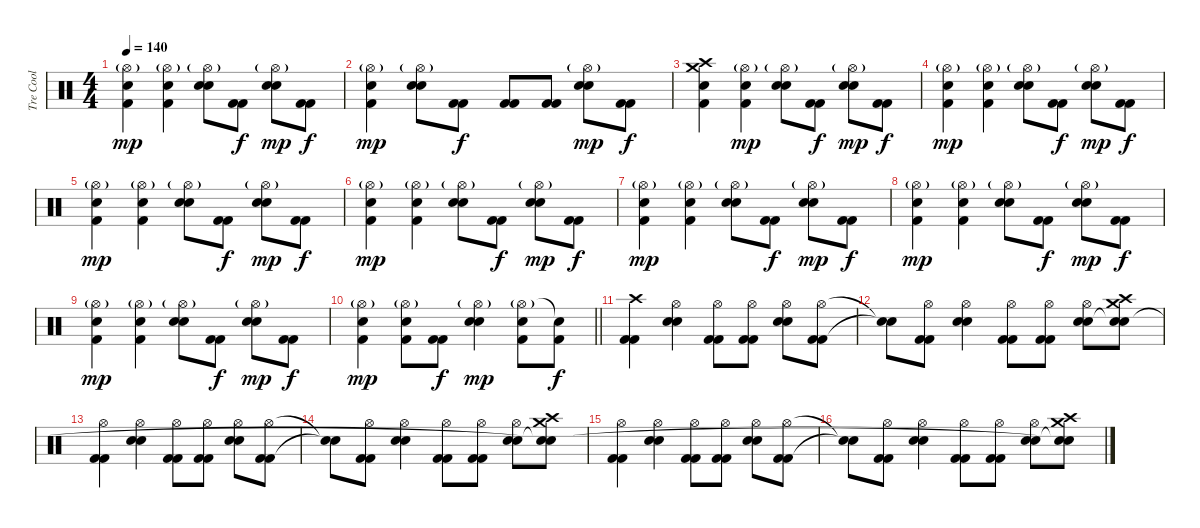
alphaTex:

\track ("Tre Cool" "Tre Cool") {instrument percussion}
\staff {score}
\articulation defaults
\ts (4 4)
\tempo 140
\clef neutral
\ks c
("Hi-Hat (open)"{g} "Electric Snare (hit)" "Kick (hit) 2").4{dy mp} ("Hi-Hat (open)"{g} "Electric Snare (hit)" "Kick (hit) 2").4 ("Hi-Hat (open)"{g} "Electric Snare (hit)" "Electric Snare (hit)").8 ("Kick (hit) 2" "Kick (hit) 2").8{dy f} ("Hi-Hat (open)"{g} "Electric Snare (hit)" "Electric Snare (hit)").8{dy mp} ("Kick (hit) 2" "Kick (hit) 2").8{dy f} |
("Hi-Hat (open)"{g} "Electric Snare (hit)" "Kick (hit) 2").4{dy mp} ("Hi-Hat (open)"{g} "Electric Snare (hit)" "Electric Snare (hit)").8 ("Kick (hit) 2" "Kick (hit) 2").8{dy f} ("Kick (hit) 2" "Kick (hit) 2").8 ("Kick (hit) 2" "Kick (hit) 2").8 ("Hi-Hat (open)"{g} "Electric Snare (hit)" "Electric Snare (hit)").8{dy mp} ("Kick (hit) 2" "Kick (hit) 2").8{dy f} |
("Crash high (hit)" "Crash medium (hit)" "Electric Snare (hit)" "Kick (hit) 2").4 ("Hi-Hat (open)"{g} "Electric Snare (hit)" "Kick (hit) 2").4{dy mp} ("Hi-Hat (open)"{g} "Electric Snare (hit)" "Electric Snare (hit)").8 ("Kick (hit) 2" "Kick (hit) 2").8{dy f} ("Hi-Hat (open)"{g} "Electric Snare (hit)" "Electric Snare (hit)").8{dy mp} ("Kick (hit) 2" "Kick (hit) 2").8{dy f} |
("Hi-Hat (open)"{g} "Electric Snare (hit)" "Kick (hit) 2").4{dy mp} ("Hi-Hat (open)"{g} "Electric Snare (hit)" "Kick (hit) 2").4 ("Hi-Hat (open)"{g} "Electric Snare (hit)" "Electric Snare (hit)").8 ("Kick (hit) 2" "Kick (hit) 2").8{dy f} ("Hi-Hat (open)"{g} "Electric Snare (hit)" "Electric Snare (hit)").8{dy mp} ("Kick (hit) 2" "Kick (hit) 2").8{dy f} |
("Hi-Hat (open)"{g} "Electric Snare (hit)" "Kick (hit) 2").4{dy mp} ("Hi-Hat (open)"{g} "Electric Snare (hit)" "Kick (hit) 2").4 ("Hi-Hat (open)"{g} "Electric Snare (hit)" "Electric Snare (hit)").8 ("Kick (hit) 2" "Kick (hit) 2").8{dy f} ("Hi-Hat (open)"{g} "Electric Snare (hit)" "Electric Snare (hit)").8{dy mp} ("Kick (hit) 2" "Kick (hit) 2").8{dy f} |
("Hi-Hat (open)"{g} "Electric Snare (hit)" "Kick (hit) 2").4{dy mp} ("Hi-Hat (open)"{g} "Electric Snare (hit)" "Kick (hit) 2").4 ("Hi-Hat (open)"{g} "Electric Snare (hit)" "Electric Snare (hit)").8 ("Kick (hit) 2" "Kick (hit) 2").8{dy f} ("Hi-Hat (open)"{g} "Electric Snare (hit)" "Electric Snare (hit)").8{dy mp} ("Kick (hit) 2" "Kick (hit) 2").8{dy f} |
("Hi-Hat (open)"{g} "Electric Snare (hit)" "Kick (hit) 2").4{dy mp} ("Hi-Hat (open)"{g} "Electric Snare (hit)" "Kick (hit) 2").4 ("Hi-Hat (open)"{g} "Electric Snare (hit)" "Electric Snare (hit)").8 ("Kick (hit) 2" "Kick (hit) 2").8{dy f} ("Hi-Hat (open)"{g} "Electric Snare (hit)" "Electric Snare (hit)").8{dy mp} ("Kick (hit) 2" "Kick (hit) 2").8{dy f} |
("Hi-Hat (open)"{g} "Electric Snare (hit)" "Kick (hit) 2").4{dy mp} ("Hi-Hat (open)"{g} "Electric Snare (hit)" "Kick (hit) 2").4 ("Hi-Hat (open)"{g} "Electric Snare (hit)" "Electric Snare (hit)").8 ("Kick (hit) 2" "Kick (hit) 2").8{dy f} ("Hi-Hat (open)"{g} "Electric Snare (hit)" "Electric Snare (hit)").8{dy mp} ("Kick (hit) 2" "Kick (hit) 2").8{dy f} |
("Hi-Hat (open)"{g} "Electric Snare (hit)" "Kick (hit) 2").4{dy mp} ("Hi-Hat (open)"{g} "Electric Snare (hit)" "Kick (hit) 2").4 ("Hi-Hat (open)"{g} "Electric Snare (hit)" "Electric Snare (hit)").8 ("Kick (hit) 2" "Kick (hit) 2").8{dy f} ("Hi-Hat (open)"{g} "Electric Snare (hit)" "Electric Snare (hit)").8{dy mp} ("Kick (hit) 2" "Kick (hit) 2").8{dy f} |
\barLineRight lightlight
("Hi-Hat (open)"{g} "Electric Snare (hit)" "Kick (hit) 2").4{dy mp} ("Hi-Hat (open)"{g} "Electric Snare (hit)" "Kick (hit) 2").8 ("Kick (hit) 2" "Kick (hit) 2").8{dy f} ("Hi-Hat (open)"{g} "Electric Snare (hit)" "Electric Snare (hit)").4{dy mp} ("Hi-Hat (open)"{g} "Electric Snare (hit)"{tr (38 64)} "Kick (hit) 2").8 ("Electric Snare (hit)"{t} "Kick (hit) 2").8{dy f} |
("Crash high (hit)" "Kick (hit) 2" "Kick (hit) 2").4 ("Hi-Hat (open)" "Electric Snare (hit)" "Electric Snare (hit)").4 ("Hi-Hat (open)" "Kick (hit) 2" "Kick (hit) 2").8 ("Hi-Hat (open)" "Kick (hit) 2" "Kick (hit) 2").8 ("Hi-Hat (open)" "Electric Snare (hit)" "Electric Snare (hit)").8 ("Hi-Hat (open)" "Kick (hit) 2" "Kick (hit) 2").8 |
("Snare (hit)"{t} "Snare (hit)"{t}).8 ("Hi-Hat (open)" "Kick (hit) 2" "Kick (hit) 2").8 ("Hi-Hat (open)" "Electric Snare (hit)" "Electric Snare (hit)").4 ("Hi-Hat (open)" "Kick (hit) 2" "Kick (hit) 2").8 ("Hi-Hat (open)" "Kick (hit) 2" "Kick (hit) 2").8 ("Hi-Hat (open)" "Electric Snare (hit)" "Electric Snare (hit)").8 ("Crash high (hit)" "Crash medium (hit)" "Snare (hit)"{t} "Snare (hit)").8 |
("Hi-Hat (open)" "Kick (hit) 2" "Kick (hit) 2").4 ("Hi-Hat (open)" "Electric Snare (hit)" "Electric Snare (hit)").4 ("Hi-Hat (open)" "Kick (hit) 2" "Kick (hit) 2").8 ("Hi-Hat (open)" "Kick (hit) 2" "Kick (hit) 2").8 ("Hi-Hat (open)" "Electric Snare (hit)" "Electric Snare (hit)").8 ("Hi-Hat (open)" "Kick (hit) 2" "Kick (hit) 2").8 |
("Snare (hit)"{t} "Snare (hit)"{t}).8 ("Hi-Hat (open)" "Kick (hit) 2" "Kick (hit) 2").8 ("Hi-Hat (open)" "Electric Snare (hit)" "Electric Snare (hit)").4 ("Hi-Hat (open)" "Kick (hit) 2" "Kick (hit) 2").8 ("Hi-Hat (open)" "Kick (hit) 2" "Kick (hit) 2").8 ("Hi-Hat (open)" "Electric Snare (hit)" "Electric Snare (hit)").8 ("Crash high (hit)" "Crash medium (hit)" "Snare (hit)"{t} "Snare (hit)"{t}).8 |
("Hi-Hat (open)" "Kick (hit) 2" "Kick (hit) 2").4 ("Hi-Hat (open)" "Electric Snare (hit)" "Electric Snare (hit)").4 ("Hi-Hat (open)" "Kick (hit) 2" "Kick (hit) 2").8 ("Hi-Hat (open)" "Kick (hit) 2" "Kick (hit) 2").8 ("Hi-Hat (open)" "Electric Snare (hit)" "Electric Snare (hit)").8 ("Hi-Hat (open)" "Kick (hit) 2" "Kick (hit) 2").8 |
("Snare (hit)"{t} "Snare (hit)"{t}).8 ("Hi-Hat (open)" "Kick (hit) 2" "Kick (hit) 2").8 ("Hi-Hat (open)" "Electric Snare (hit)" "Electric Snare (hit)").4 ("Hi-Hat (open)" "Kick (hit) 2" "Kick (hit) 2").8 ("Hi-Hat (open)" "Kick (hit) 2" "Kick (hit) 2").8 ("Hi-Hat (open)" "Electric Snare (hit)" "Electric Snare (hit)").8 ("Crash high (hit)" "Crash medium (hit)" "Snare (hit)"{t} "Snare (hit)"{t}).8
